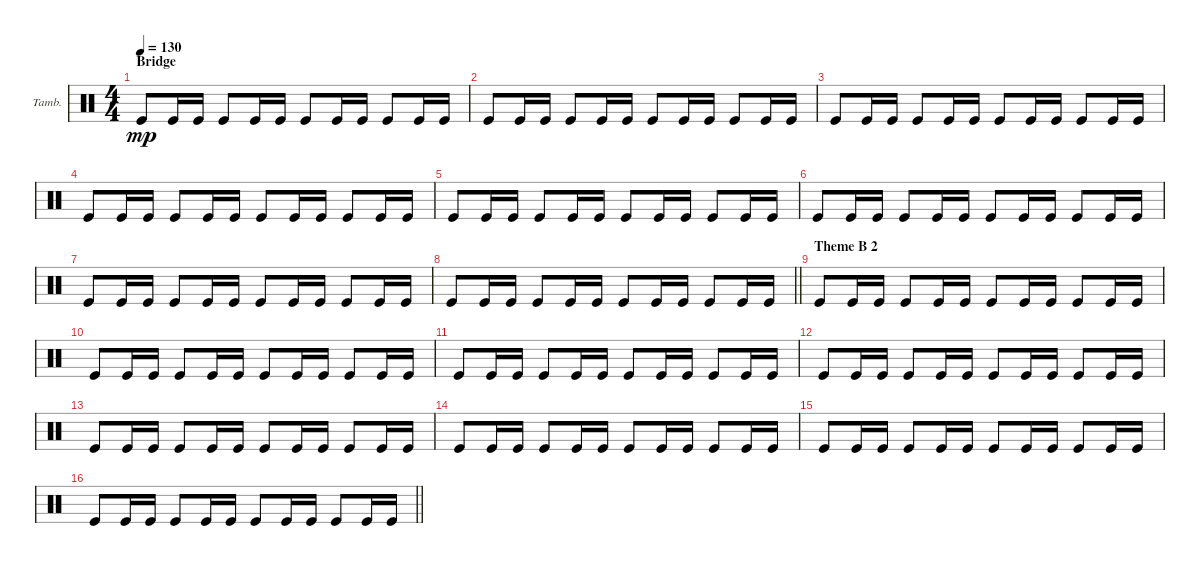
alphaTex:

\bracketExtendMode groupsimilarinstruments
\firstSystemTrackNameOrientation horizontal
\otherSystemsTrackNameOrientation horizontal
\track ("Tambourine" "Tamb.") {instrument percussion}
\staff {score}
\articulation defaults
\ts (4 4)
\section ("" "Bridge")
\tempo 130
\clef neutral
\ks c "Kick (hit)".8{dy mp} "Kick (hit)".16 "Kick (hit)".16 "Kick (hit)".8 "Kick (hit)".16 "Kick (hit)".16 "Kick (hit)".8 "Kick (hit)".16 "Kick (hit)".16 "Kick (hit)".8 "Kick (hit)".16 "Kick (hit)".16
|
"Kick (hit)".8 "Kick (hit)".16 "Kick (hit)".16 "Kick (hit)".8 "Kick (hit)".16 "Kick (hit)".16 "Kick (hit)".8 "Kick (hit)".16 "Kick (hit)".16 "Kick (hit)".8 "Kick (hit)".16 "Kick (hit)".16 |
"Kick (hit)".8 "Kick (hit)".16 "Kick (hit)".16 "Kick (hit)".8 "Kick (hit)".16 "Kick (hit)".16 "Kick (hit)".8 "Kick (hit)".16 "Kick (hit)".16 "Kick (hit)".8 "Kick (hit)".16 "Kick (hit)".16 |
"Kick (hit)".8 "Kick (hit)".16 "Kick (hit)".16 "Kick (hit)".8 "Kick (hit)".16 "Kick (hit)".16 "Kick (hit)".8 "Kick (hit)".16 "Kick (hit)".16 "Kick (hit)".8 "Kick (hit)".16 "Kick (hit)".16 |
"Kick (hit)".8 "Kick (hit)".16 "Kick (hit)".16 "Kick (hit)".8 "Kick (hit)".16 "Kick (hit)".16 "Kick (hit)".8 "Kick (hit)".16 "Kick (hit)".16 "Kick (hit)".8 "Kick (hit)".16 "Kick (hit)".16 |
"Kick (hit)".8 "Kick (hit)".16 "Kick (hit)".16 "Kick (hit)".8 "Kick (hit)".16 "Kick (hit)".16 "Kick (hit)".8 "Kick (hit)".16 "Kick (hit)".16 "Kick (hit)".8 "Kick (hit)".16 "Kick (hit)".16 |
"Kick (hit)".8 "Kick (hit)".16 "Kick (hit)".16 "Kick (hit)".8 "Kick (hit)".16 "Kick (hit)".16 "Kick (hit)".8 "Kick (hit)".16 "Kick (hit)".16 "Kick (hit)".8 "Kick (hit)".16 "Kick (hit)".16 |
\barLineRight lightlight "Kick (hit)".8 "Kick (hit)".16 "Kick (hit)".16 "Kick (hit)".8 "Kick (hit)".16 "Kick (hit)".16 "Kick (hit)".8 "Kick (hit)".16 "Kick (hit)".16 "Kick (hit)".8 "Kick (hit)".16 "Kick (hit)".16
|
\section ("" "Theme B 2")
"Kick (hit)".8 "Kick (hit)".16 "Kick (hit)".16 "Kick (hit)".8 "Kick (hit)".16 "Kick (hit)".16 "Kick (hit)".8 "Kick (hit)".16 "Kick (hit)".16 "Kick (hit)".8 "Kick (hit)".16 "Kick (hit)".16 |
"Kick (hit)".8 "Kick (hit)".16 "Kick (hit)".16 "Kick (hit)".8 "Kick (hit)".16 "Kick (hit)".16 "Kick (hit)".8 "Kick (hit)".16 "Kick (hit)".16 "Kick (hit)".8 "Kick (hit)".16 "Kick (hit)".16 |
"Kick (hit)".8 "Kick (hit)".16 "Kick (hit)".16 "Kick (hit)".8 "Kick (hit)".16 "Kick (hit)".16 "Kick (hit)".8 "Kick (hit)".16 "Kick (hit)".16 "Kick (hit)".8 "Kick (hit)".16 "Kick (hit)".16 |
"Kick (hit)".8 "Kick (hit)".16 "Kick (hit)".16 "Kick (hit)".8 "Kick (hit)".16 "Kick (hit)".16 "Kick (hit)".8 "Kick (hit)".16 "Kick (hit)".16 "Kick (hit)".8 "Kick (hit)".16 "Kick (hit)".16 |
"Kick (hit)".8 "Kick (hit)".16 "Kick (hit)".16 "Kick (hit)".8 "Kick (hit)".16 "Kick (hit)".16 "Kick (hit)".8 "Kick (hit)".16 "Kick (hit)".16 "Kick (hit)".8 "Kick (hit)".16 "Kick (hit)".16 |
"Kick (hit)".8 "Kick (hit)".16 "Kick (hit)".16 "Kick (hit)".8 "Kick (hit)".16 "Kick (hit)".16 "Kick (hit)".8 "Kick (hit)".16 "Kick (hit)".16 "Kick (hit)".8 "Kick (hit)".16 "Kick (hit)".16 |
"Kick (hit)".8 "Kick (hit)".16 "Kick (hit)".16 "Kick (hit)".8 "Kick (hit)".16 "Kick (hit)".16 "Kick (hit)".8 "Kick (hit)".16 "Kick (hit)".16 "Kick (hit)".8 "Kick (hit)".16 "Kick (hit)".16 |
\barLineRight lightlight "Kick (hit)".8 "Kick (hit)".16 "Kick (hit)".16 "Kick (hit)".8 "Kick (hit)".16 "Kick (hit)".16 "Kick (hit)".8 "Kick (hit)".16 "Kick (hit)".16 "Kick (hit)".8 "Kick (hit)".16 "Kick (hit)".16
